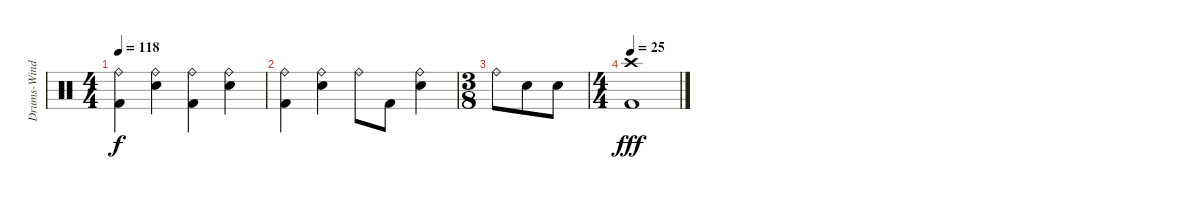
\track ("Drums-Wind (Bengerg)" "Drums-Wind") {instrument percussion}
\staff {score}
\articulation defaults
\ts (4 4)
\tempo 118
\clef neutral
\ks c
("Ride (bell)" "Kick (hit) 2").4{dy f} ("Ride (bell)" "Electric Snare (hit)").4 ("Ride (bell)" "Kick (hit) 2").4 ("Ride (bell)" "Electric Snare (hit)").4 |
("Ride (bell)" "Kick (hit) 2").4 ("Ride (bell)" "Electric Snare (hit)").4 "Ride (bell)".8 "Kick (hit) 2".8 ("Ride (bell)" "Electric Snare (hit)").4 |
\ts (3 8)
"Ride (bell)".8 "Electric Snare (hit)".8 "Electric Snare (hit)".8 |
\ts (4 4)
\tempo 25
("Crash high (hit)" "Kick (hit) 2").1{dy fff}
